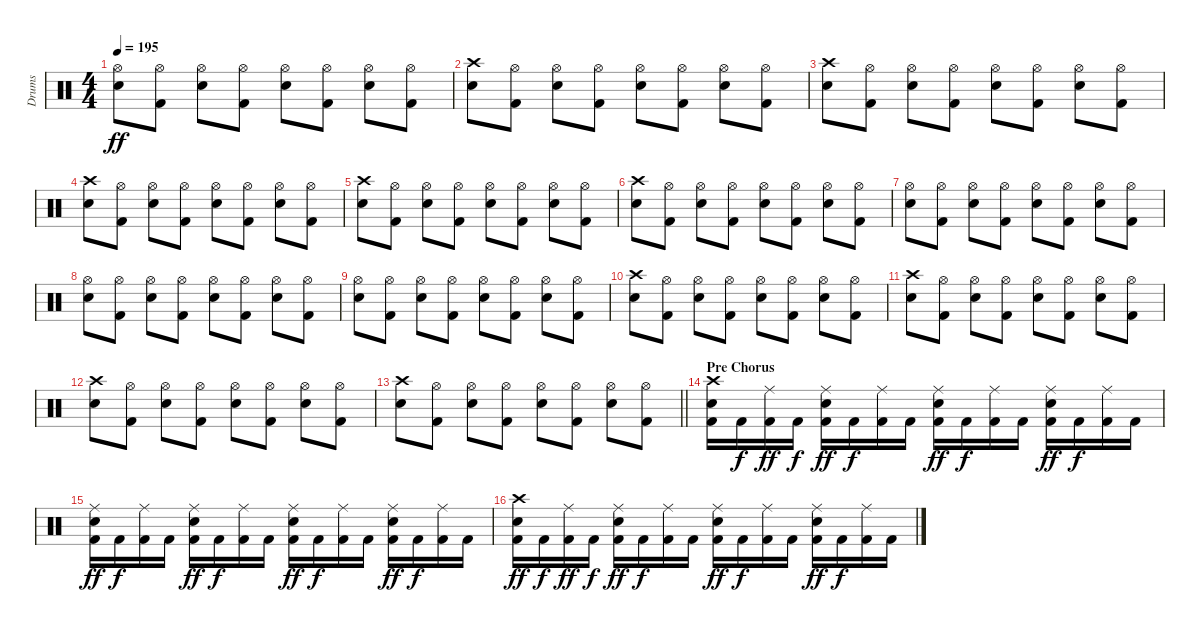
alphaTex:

\track ("Drums" "Drums") {instrument percussion}
\staff {score}
\articulation defaults
\ts (4 4)
\tempo 195
\clef neutral
\ks c
("Hi-Hat (open)" "Snare (hit) 2").8{dy ff} ("Hi-Hat (open)" "Kick (hit) 2").8 ("Hi-Hat (open)" "Snare (hit) 2").8 ("Hi-Hat (open)" "Kick (hit) 2").8 ("Hi-Hat (open)" "Snare (hit) 2").8 ("Hi-Hat (open)" "Kick (hit) 2").8 ("Hi-Hat (open)" "Snare (hit) 2").8 ("Hi-Hat (open)" "Kick (hit) 2").8 |
("Crash high (hit)" "Snare (hit) 2").8 ("Hi-Hat (open)" "Kick (hit) 2").8 ("Hi-Hat (open)" "Snare (hit) 2").8 ("Hi-Hat (open)" "Kick (hit) 2").8 ("Hi-Hat (open)" "Snare (hit) 2").8 ("Hi-Hat (open)" "Kick (hit) 2").8 ("Hi-Hat (open)" "Snare (hit) 2").8 ("Hi-Hat (open)" "Kick (hit) 2").8 |
("Crash high (hit)" "Snare (hit) 2").8 ("Hi-Hat (open)" "Kick (hit) 2").8 ("Hi-Hat (open)" "Snare (hit) 2").8 ("Hi-Hat (open)" "Kick (hit) 2").8 ("Hi-Hat (open)" "Snare (hit) 2").8 ("Hi-Hat (open)" "Kick (hit) 2").8 ("Hi-Hat (open)" "Snare (hit) 2").8 ("Hi-Hat (open)" "Kick (hit) 2").8 |
("Crash high (hit)" "Snare (hit) 2").8 ("Hi-Hat (open)" "Kick (hit) 2").8 ("Hi-Hat (open)" "Snare (hit) 2").8 ("Hi-Hat (open)" "Kick (hit) 2").8 ("Hi-Hat (open)" "Snare (hit) 2").8 ("Hi-Hat (open)" "Kick (hit) 2").8 ("Hi-Hat (open)" "Snare (hit) 2").8 ("Hi-Hat (open)" "Kick (hit) 2").8 |
("Crash high (hit)" "Snare (hit) 2").8 ("Hi-Hat (open)" "Kick (hit) 2").8 ("Hi-Hat (open)" "Snare (hit) 2").8 ("Hi-Hat (open)" "Kick (hit) 2").8 ("Hi-Hat (open)" "Snare (hit) 2").8 ("Hi-Hat (open)" "Kick (hit) 2").8 ("Hi-Hat (open)" "Snare (hit) 2").8 ("Hi-Hat (open)" "Kick (hit) 2").8 |
("Crash high (hit)" "Snare (hit) 2").8 ("Hi-Hat (open)" "Kick (hit) 2").8 ("Hi-Hat (open)" "Snare (hit) 2").8 ("Hi-Hat (open)" "Kick (hit) 2").8 ("Hi-Hat (open)" "Snare (hit) 2").8 ("Hi-Hat (open)" "Kick (hit) 2").8 ("Hi-Hat (open)" "Snare (hit) 2").8 ("Hi-Hat (open)" "Kick (hit) 2").8 |
("Hi-Hat (open)" "Snare (hit) 2").8 ("Hi-Hat (open)" "Kick (hit) 2").8 ("Hi-Hat (open)" "Snare (hit) 2").8 ("Hi-Hat (open)" "Kick (hit) 2").8 ("Hi-Hat (open)" "Snare (hit) 2").8 ("Hi-Hat (open)" "Kick (hit) 2").8 ("Hi-Hat (open)" "Snare (hit) 2").8 ("Hi-Hat (open)" "Kick (hit) 2").8 |
("Hi-Hat (open)" "Snare (hit) 2").8 ("Hi-Hat (open)" "Kick (hit) 2").8 ("Hi-Hat (open)" "Snare (hit) 2").8 ("Hi-Hat (open)" "Kick (hit) 2").8 ("Hi-Hat (open)" "Snare (hit) 2").8 ("Hi-Hat (open)" "Kick (hit) 2").8 ("Hi-Hat (open)" "Snare (hit) 2").8 ("Hi-Hat (open)" "Kick (hit) 2").8 |
("Hi-Hat (open)" "Snare (hit) 2").8 ("Hi-Hat (open)" "Kick (hit) 2").8 ("Hi-Hat (open)" "Snare (hit) 2").8 ("Hi-Hat (open)" "Kick (hit) 2").8 ("Hi-Hat (open)" "Snare (hit) 2").8 ("Hi-Hat (open)" "Kick (hit) 2").8 ("Hi-Hat (open)" "Snare (hit) 2").8 ("Hi-Hat (open)" "Kick (hit) 2").8 |
("Crash high (hit)" "Snare (hit) 2").8 ("Hi-Hat (open)" "Kick (hit) 2").8 ("Hi-Hat (open)" "Snare (hit) 2").8 ("Hi-Hat (open)" "Kick (hit) 2").8 ("Hi-Hat (open)" "Snare (hit) 2").8 ("Hi-Hat (open)" "Kick (hit) 2").8 ("Hi-Hat (open)" "Snare (hit) 2").8 ("Hi-Hat (open)" "Kick (hit) 2").8 |
("Crash high (hit)" "Snare (hit) 2").8 ("Hi-Hat (open)" "Kick (hit) 2").8 ("Hi-Hat (open)" "Snare (hit) 2").8 ("Hi-Hat (open)" "Kick (hit) 2").8 ("Hi-Hat (open)" "Snare (hit) 2").8 ("Hi-Hat (open)" "Kick (hit) 2").8 ("Hi-Hat (open)" "Snare (hit) 2").8 ("Hi-Hat (open)" "Kick (hit) 2").8 |
("Crash high (hit)" "Snare (hit) 2").8 ("Hi-Hat (open)" "Kick (hit) 2").8 ("Hi-Hat (open)" "Snare (hit) 2").8 ("Hi-Hat (open)" "Kick (hit) 2").8 ("Hi-Hat (open)" "Snare (hit) 2").8 ("Hi-Hat (open)" "Kick (hit) 2").8 ("Hi-Hat (open)" "Snare (hit) 2").8 ("Hi-Hat (open)" "Kick (hit) 2").8 |
\barLineRight lightlight
("Crash high (hit)" "Snare (hit) 2").8 ("Hi-Hat (open)" "Kick (hit) 2").8 ("Hi-Hat (open)" "Snare (hit) 2").8 ("Hi-Hat (open)" "Kick (hit) 2").8 ("Hi-Hat (open)" "Snare (hit) 2").8 ("Hi-Hat (open)" "Kick (hit) 2").8 ("Hi-Hat (open)" "Snare (hit) 2").8 ("Hi-Hat (open)" "Kick (hit) 2").8 |
\section ("" "Pre Chorus")
("Crash high (hit)" "Snare (hit) 2" "Kick (hit) 2").16 "Kick (hit) 2".16{dy f} ("Ride (middle)" "Kick (hit) 2").16{dy ff} "Kick (hit) 2".16{dy f} ("Ride (middle)" "Snare (hit) 2" "Kick (hit) 2").16{dy ff} "Kick (hit) 2".16{dy f} ("Ride (middle)" "Kick (hit) 2").16 "Kick (hit) 2".16 ("Ride (middle)" "Snare (hit) 2" "Kick (hit) 2").16{dy ff} "Kick (hit) 2".16{dy f} ("Ride (middle)" "Kick (hit) 2").16 "Kick (hit) 2".16 ("Ride (middle)" "Snare (hit) 2" "Kick (hit) 2").16{dy ff} "Kick (hit) 2".16{dy f} ("Ride (middle)" "Kick (hit) 2").16 "Kick (hit) 2".16 |
("Ride (middle)" "Snare (hit) 2" "Kick (hit) 2").16{dy ff} "Kick (hit) 2".16{dy f} ("Ride (middle)" "Kick (hit) 2").16 "Kick (hit) 2".16 ("Ride (middle)" "Snare (hit) 2" "Kick (hit) 2").16{dy ff} "Kick (hit) 2".16{dy f} ("Ride (middle)" "Kick (hit) 2").16 "Kick (hit) 2".16 ("Ride (middle)" "Snare (hit) 2" "Kick (hit) 2").16{dy ff} "Kick (hit) 2".16{dy f} ("Ride (middle)" "Kick (hit) 2").16 "Kick (hit) 2".16 ("Ride (middle)" "Snare (hit) 2" "Kick (hit) 2").16{dy ff} "Kick (hit) 2".16{dy f} ("Ride (middle)" "Kick (hit) 2").16 "Kick (hit) 2".16 |
("Crash high (hit)" "Snare (hit) 2" "Kick (hit) 2").16{dy ff} "Kick (hit) 2".16{dy f} ("Ride (middle)" "Kick (hit) 2").16{dy ff} "Kick (hit) 2".16{dy f} ("Ride (middle)" "Snare (hit) 2" "Kick (hit) 2").16{dy ff} "Kick (hit) 2".16{dy f} ("Ride (middle)" "Kick (hit) 2").16 "Kick (hit) 2".16 ("Ride (middle)" "Snare (hit) 2" "Kick (hit) 2").16{dy ff} "Kick (hit) 2".16{dy f} ("Ride (middle)" "Kick (hit) 2").16 "Kick (hit) 2".16 ("Ride (middle)" "Snare (hit) 2" "Kick (hit) 2").16{dy ff} "Kick (hit) 2".16{dy f} ("Ride (middle)" "Kick (hit) 2").16 "Kick (hit) 2".16
